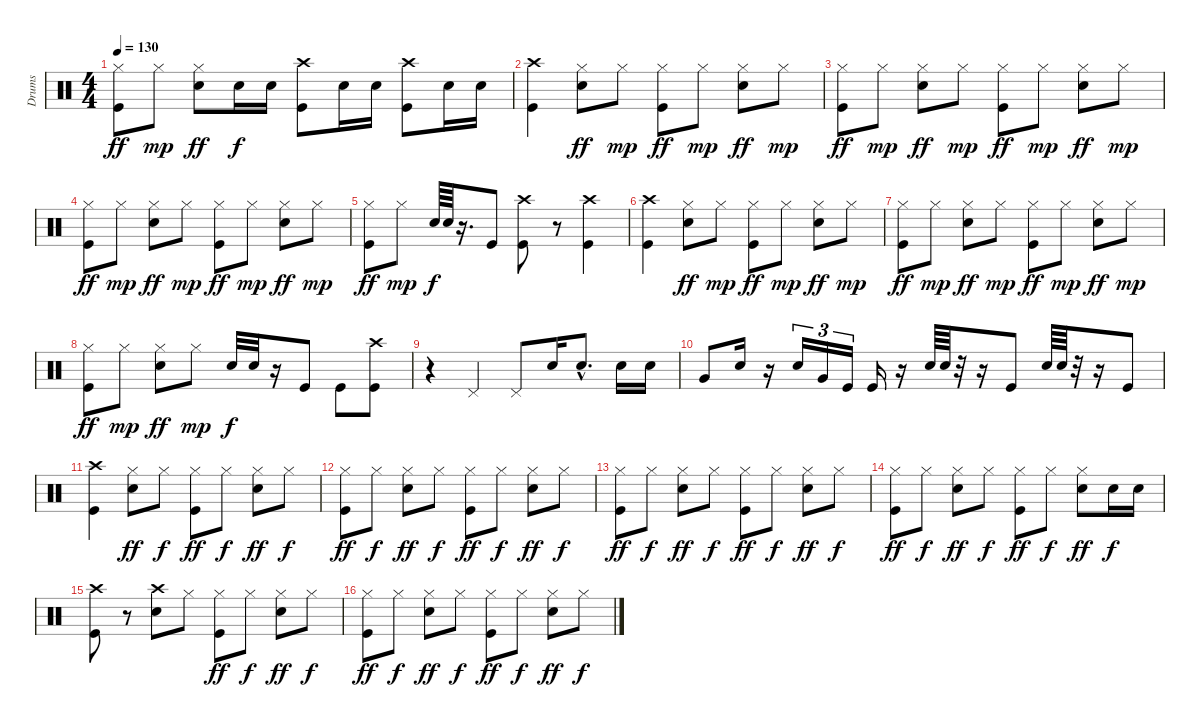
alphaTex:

\track ("Drums" "Drums") {instrument percussion}
\staff {score}
\articulation defaults
\ts (4 4)
\tempo 130
\clef neutral
\ks c
("Hi-Hat (closed)" "Kick (hit)").8{dy ff} "Hi-Hat (closed)".8{dy mp} ("Hi-Hat (closed)" "Snare (hit) 2").8{dy ff} "Snare (hit) 2".16{dy f} "Snare (hit) 2".16 ("Crash high (hit)" "Kick (hit)").8 "Snare (hit) 2".16 "Snare (hit) 2".16 ("Crash high (hit)" "Kick (hit)").8 "Snare (hit) 2".16 "Snare (hit) 2".16 |
("Crash high (hit)" "Kick (hit)").4 ("Hi-Hat (closed)" "Snare (hit) 2").8{dy ff} "Hi-Hat (closed)".8{dy mp} ("Hi-Hat (closed)" "Kick (hit)").8{dy ff} "Hi-Hat (closed)".8{dy mp} ("Hi-Hat (closed)" "Snare (hit) 2").8{dy ff} "Hi-Hat (closed)".8{dy mp} |
("Hi-Hat (closed)" "Kick (hit)").8{dy ff} "Hi-Hat (closed)".8{dy mp} ("Hi-Hat (closed)" "Snare (hit) 2").8{dy ff} "Hi-Hat (closed)".8{dy mp} ("Hi-Hat (closed)" "Kick (hit)").8{dy ff} "Hi-Hat (closed)".8{dy mp} ("Hi-Hat (closed)" "Snare (hit) 2").8{dy ff} "Hi-Hat (closed)".8{dy mp} |
("Hi-Hat (closed)" "Kick (hit)").8{dy ff} "Hi-Hat (closed)".8{dy mp} ("Hi-Hat (closed)" "Snare (hit) 2").8{dy ff} "Hi-Hat (closed)".8{dy mp} ("Hi-Hat (closed)" "Kick (hit)").8{dy ff} "Hi-Hat (closed)".8{dy mp} ("Hi-Hat (closed)" "Snare (hit) 2").8{dy ff} "Hi-Hat (closed)".8{dy mp} |
("Hi-Hat (closed)" "Kick (hit)").8{dy ff} "Hi-Hat (closed)".8{dy mp} "Snare (hit) 2".64{dy f} "Snare (hit) 2".64 r.16{d} "Kick (hit)".8 ("Crash high (hit)" "Kick (hit)").8 r.8 ("Crash high (hit)" "Kick (hit)").4 |
("Crash high (hit)" "Kick (hit)").4 ("Hi-Hat (closed)" "Snare (hit) 2").8{dy ff} "Hi-Hat (closed)".8{dy mp} ("Hi-Hat (closed)" "Kick (hit)").8{dy ff} "Hi-Hat (closed)".8{dy mp} ("Hi-Hat (closed)" "Snare (hit) 2").8{dy ff} "Hi-Hat (closed)".8{dy mp} |
("Hi-Hat (closed)" "Kick (hit)").8{dy ff} "Hi-Hat (closed)".8{dy mp} ("Hi-Hat (closed)" "Snare (hit) 2").8{dy ff} "Hi-Hat (closed)".8{dy mp} ("Hi-Hat (closed)" "Kick (hit)").8{dy ff} "Hi-Hat (closed)".8{dy mp} ("Hi-Hat (closed)" "Snare (hit) 2").8{dy ff} "Hi-Hat (closed)".8{dy mp} |
("Hi-Hat (closed)" "Kick (hit)").8{dy ff} "Hi-Hat (closed)".8{dy mp} ("Hi-Hat (closed)" "Snare (hit) 2").8{dy ff} "Hi-Hat (closed)".8{dy mp} "Snare (hit) 2".32{dy f} "Snare (hit) 2".32 r.16 "Kick (hit)".8 "Kick (hit)".8 ("Crash high (hit)" "Kick (hit)").8 |
r.4 "Pedal Hi-Hat (hit)".4 "Pedal Hi-Hat (hit)".8 "Snare (hit) 2".16 "Snare (hit) 2"{hac}.8{d} "Snare (hit) 2".16 "Snare (hit) 2".16 |
"Very Low Tom (hit)".8 "Snare (hit) 2".16 r.16 "Snare (hit) 2".16{tu (3 2)} "Very Low Tom (hit)".16{tu (3 2)} "Kick (hit)".16{tu (3 2)} "Kick (hit)".16 r.16 "Snare (hit) 2".64 "Snare (hit) 2".64 r.32 r.16 "Kick (hit)".8 "Snare (hit) 2".64 "Snare (hit) 2".64 r.32 r.16 "Kick (hit)".8 |
("Crash high (hit)" "Kick (hit)").4 ("Hi-Hat (closed)" "Snare (hit) 2").8{dy ff} "Hi-Hat (closed)".8{dy f} ("Hi-Hat (closed)" "Kick (hit)").8{dy ff} "Hi-Hat (closed)".8{dy f} ("Hi-Hat (closed)" "Snare (hit) 2").8{dy ff} "Hi-Hat (closed)".8{dy f} |
("Hi-Hat (closed)" "Kick (hit)").8{dy ff} "Hi-Hat (closed)".8{dy f} ("Hi-Hat (closed)" "Snare (hit) 2").8{dy ff} "Hi-Hat (closed)".8{dy f} ("Hi-Hat (closed)" "Kick (hit)").8{dy ff} "Hi-Hat (closed)".8{dy f} ("Hi-Hat (closed)" "Snare (hit) 2").8{dy ff} "Hi-Hat (closed)".8{dy f} |
("Hi-Hat (closed)" "Kick (hit)").8{dy ff} "Hi-Hat (closed)".8{dy f} ("Hi-Hat (closed)" "Snare (hit) 2").8{dy ff} "Hi-Hat (closed)".8{dy f} ("Hi-Hat (closed)" "Kick (hit)").8{dy ff} "Hi-Hat (closed)".8{dy f} ("Hi-Hat (closed)" "Snare (hit) 2").8{dy ff} "Hi-Hat (closed)".8{dy f} |
("Hi-Hat (closed)" "Kick (hit)").8{dy ff} "Hi-Hat (closed)".8{dy f} ("Hi-Hat (closed)" "Snare (hit) 2").8{dy ff} "Hi-Hat (closed)".8{dy f} ("Hi-Hat (closed)" "Kick (hit)").8{dy ff} "Hi-Hat (closed)".8{dy f} ("Hi-Hat (closed)" "Snare (hit) 2").8{dy ff} "Snare (hit) 2".16{dy f} "Snare (hit) 2".16 |
("Crash high (hit)" "Kick (hit)").8 r.8 ("Crash high (hit)" "Snare (hit) 2").8 "Hi-Hat (closed)".8 ("Hi-Hat (closed)" "Kick (hit)").8{dy ff} "Hi-Hat (closed)".8{dy f} ("Hi-Hat (closed)" "Snare (hit) 2").8{dy ff} "Hi-Hat (closed)".8{dy f} |
("Hi-Hat (closed)" "Kick (hit)").8{dy ff} "Hi-Hat (closed)".8{dy f} ("Hi-Hat (closed)" "Snare (hit) 2").8{dy ff} "Hi-Hat (closed)".8{dy f} ("Hi-Hat (closed)" "Kick (hit)").8{dy ff} "Hi-Hat (closed)".8{dy f} ("Hi-Hat (closed)" "Snare (hit) 2").8{dy ff} "Hi-Hat (closed)".8{dy f}
